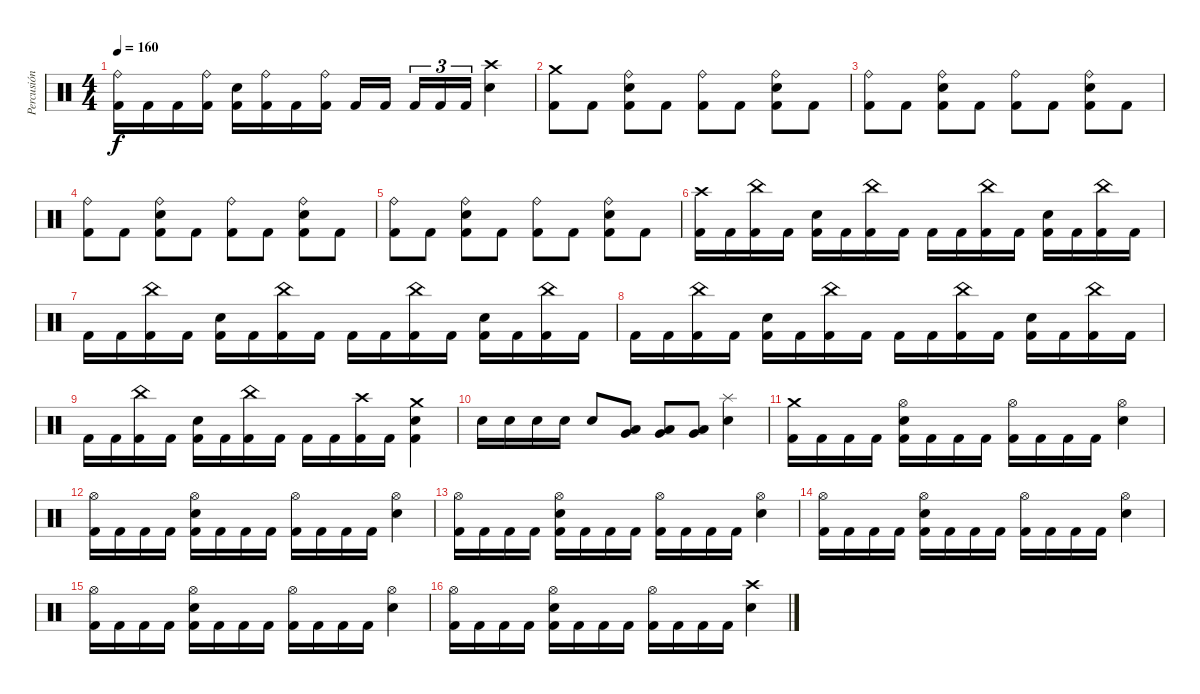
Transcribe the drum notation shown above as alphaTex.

\track ("Percusión" "Percusión") {instrument percussion}
\staff {score}
\articulation defaults
\ts (4 4)
\tempo 160
\clef neutral
\ks c
("Ride (bell)" "Kick (hit) 2").16{dy f} "Kick (hit) 2".16 "Kick (hit) 2".16 ("Ride (bell)" "Kick (hit) 2").16 ("Electric Snare (hit)" "Kick (hit) 2").16 ("Ride (bell)" "Kick (hit) 2").16 "Kick (hit) 2".16 ("Ride (bell)" "Kick (hit) 2").16 "Kick (hit) 2".16 "Kick (hit) 2".16{beam splitsecondary} "Kick (hit) 2".16{tu (3 2)} "Kick (hit) 2".16{tu (3 2)} "Kick (hit) 2".16{tu (3 2)} ("Crash high (hit)" "Electric Snare (hit)").4 |
("Crash medium (hit)" "Kick (hit) 2").8 "Kick (hit) 2".8 ("Ride (bell)" "Electric Snare (hit)" "Kick (hit) 2").8 "Kick (hit) 2".8 ("Ride (bell)" "Kick (hit) 2").8 "Kick (hit) 2".8 ("Ride (bell)" "Electric Snare (hit)" "Kick (hit) 2").8 "Kick (hit) 2".8 |
("Ride (bell)" "Kick (hit) 2").8 "Kick (hit) 2".8 ("Ride (bell)" "Electric Snare (hit)" "Kick (hit) 2").8 "Kick (hit) 2".8 ("Ride (bell)" "Kick (hit) 2").8 "Kick (hit) 2".8 ("Ride (bell)" "Electric Snare (hit)" "Kick (hit) 2").8 "Kick (hit) 2".8 |
("Ride (bell)" "Kick (hit) 2").8 "Kick (hit) 2".8 ("Ride (bell)" "Electric Snare (hit)" "Kick (hit) 2").8 "Kick (hit) 2".8 ("Ride (bell)" "Kick (hit) 2").8 "Kick (hit) 2".8 ("Ride (bell)" "Electric Snare (hit)" "Kick (hit) 2").8 "Kick (hit) 2".8 |
("Ride (bell)" "Kick (hit) 2").8 "Kick (hit) 2".8 ("Ride (bell)" "Electric Snare (hit)" "Kick (hit) 2").8 "Kick (hit) 2".8 ("Ride (bell)" "Kick (hit) 2").8 "Kick (hit) 2".8 ("Ride (bell)" "Electric Snare (hit)" "Kick (hit) 2").8 "Kick (hit) 2".8 |
("Crash high (hit)" "Kick (hit) 2").16 "Kick (hit) 2".16 ("China (hit)" "Kick (hit) 2").16 "Kick (hit) 2".16 ("Electric Snare (hit)" "Kick (hit) 2").16 "Kick (hit) 2".16 ("China (hit)" "Kick (hit) 2").16 "Kick (hit) 2".16 "Kick (hit) 2".16 "Kick (hit) 2".16 ("China (hit)" "Kick (hit) 2").16 "Kick (hit) 2".16 ("Electric Snare (hit)" "Kick (hit) 2").16 "Kick (hit) 2".16 ("China (hit)" "Kick (hit) 2").16 "Kick (hit) 2".16 |
"Kick (hit) 2".16 "Kick (hit) 2".16 ("China (hit)" "Kick (hit) 2").16 "Kick (hit) 2".16 ("Electric Snare (hit)" "Kick (hit) 2").16 "Kick (hit) 2".16 ("China (hit)" "Kick (hit) 2").16 "Kick (hit) 2".16 "Kick (hit) 2".16 "Kick (hit) 2".16 ("China (hit)" "Kick (hit) 2").16 "Kick (hit) 2".16 ("Electric Snare (hit)" "Kick (hit) 2").16 "Kick (hit) 2".16 ("China (hit)" "Kick (hit) 2").16 "Kick (hit) 2".16 |
"Kick (hit) 2".16 "Kick (hit) 2".16 ("China (hit)" "Kick (hit) 2").16 "Kick (hit) 2".16 ("Electric Snare (hit)" "Kick (hit) 2").16 "Kick (hit) 2".16 ("China (hit)" "Kick (hit) 2").16 "Kick (hit) 2".16 "Kick (hit) 2".16 "Kick (hit) 2".16 ("China (hit)" "Kick (hit) 2").16 "Kick (hit) 2".16 ("Electric Snare (hit)" "Kick (hit) 2").16 "Kick (hit) 2".16 ("China (hit)" "Kick (hit) 2").16 "Kick (hit) 2".16 |
"Kick (hit) 2".16 "Kick (hit) 2".16 ("China (hit)" "Kick (hit) 2").16 "Kick (hit) 2".16 ("Electric Snare (hit)" "Kick (hit) 2").16 "Kick (hit) 2".16 ("China (hit)" "Kick (hit) 2").16 "Kick (hit) 2".16 "Kick (hit) 2".16 "Kick (hit) 2".16 ("Crash high (hit)" "Kick (hit) 2").16 "Kick (hit) 2".16 ("Crash medium (hit)" "Electric Snare (hit)" "Kick (hit) 2").4 |
"Electric Snare (hit)".16 "Electric Snare (hit)".16 "Electric Snare (hit)".16 "Electric Snare (hit)".16 "Electric Snare (hit)".8 ("Low Floor Tom (hit)" "Very Low Tom (hit)").8 ("Low Floor Tom (hit)" "Very Low Tom (hit)").8 ("Low Floor Tom (hit)" "Very Low Tom (hit)").8 ("Splash (hit)" "Electric Snare (hit)").4 |
("Crash medium (hit)" "Kick (hit) 2").16 "Kick (hit) 2".16 "Kick (hit) 2".16 "Kick (hit) 2".16 ("Hi-Hat (open)" "Electric Snare (hit)" "Kick (hit) 2").16 "Kick (hit) 2".16 "Kick (hit) 2".16 "Kick (hit) 2".16 ("Hi-Hat (open)" "Kick (hit) 2").16 "Kick (hit) 2".16 "Kick (hit) 2".16 "Kick (hit) 2".16 ("Hi-Hat (open)" "Electric Snare (hit)").4 |
("Hi-Hat (open)" "Kick (hit) 2").16 "Kick (hit) 2".16 "Kick (hit) 2".16 "Kick (hit) 2".16 ("Hi-Hat (open)" "Electric Snare (hit)" "Kick (hit) 2").16 "Kick (hit) 2".16 "Kick (hit) 2".16 "Kick (hit) 2".16 ("Hi-Hat (open)" "Kick (hit) 2").16 "Kick (hit) 2".16 "Kick (hit) 2".16 "Kick (hit) 2".16 ("Hi-Hat (open)" "Electric Snare (hit)").4 |
("Hi-Hat (open)" "Kick (hit) 2").16 "Kick (hit) 2".16 "Kick (hit) 2".16 "Kick (hit) 2".16 ("Hi-Hat (open)" "Electric Snare (hit)" "Kick (hit) 2").16 "Kick (hit) 2".16 "Kick (hit) 2".16 "Kick (hit) 2".16 ("Hi-Hat (open)" "Kick (hit) 2").16 "Kick (hit) 2".16 "Kick (hit) 2".16 "Kick (hit) 2".16 ("Hi-Hat (open)" "Electric Snare (hit)").4 |
("Hi-Hat (open)" "Kick (hit) 2").16 "Kick (hit) 2".16 "Kick (hit) 2".16 "Kick (hit) 2".16 ("Hi-Hat (open)" "Electric Snare (hit)" "Kick (hit) 2").16 "Kick (hit) 2".16 "Kick (hit) 2".16 "Kick (hit) 2".16 ("Hi-Hat (open)" "Kick (hit) 2").16 "Kick (hit) 2".16 "Kick (hit) 2".16 "Kick (hit) 2".16 ("Hi-Hat (open)" "Electric Snare (hit)").4 |
("Hi-Hat (open)" "Kick (hit) 2").16 "Kick (hit) 2".16 "Kick (hit) 2".16 "Kick (hit) 2".16 ("Hi-Hat (open)" "Electric Snare (hit)" "Kick (hit) 2").16 "Kick (hit) 2".16 "Kick (hit) 2".16 "Kick (hit) 2".16 ("Hi-Hat (open)" "Kick (hit) 2").16 "Kick (hit) 2".16 "Kick (hit) 2".16 "Kick (hit) 2".16 ("Hi-Hat (open)" "Electric Snare (hit)").4 |
("Hi-Hat (open)" "Kick (hit) 2").16 "Kick (hit) 2".16 "Kick (hit) 2".16 "Kick (hit) 2".16 ("Hi-Hat (open)" "Electric Snare (hit)" "Kick (hit) 2").16 "Kick (hit) 2".16 "Kick (hit) 2".16 "Kick (hit) 2".16 ("Hi-Hat (open)" "Kick (hit) 2").16 "Kick (hit) 2".16 "Kick (hit) 2".16 "Kick (hit) 2".16 ("Crash high (hit)" "Electric Snare (hit)").4
